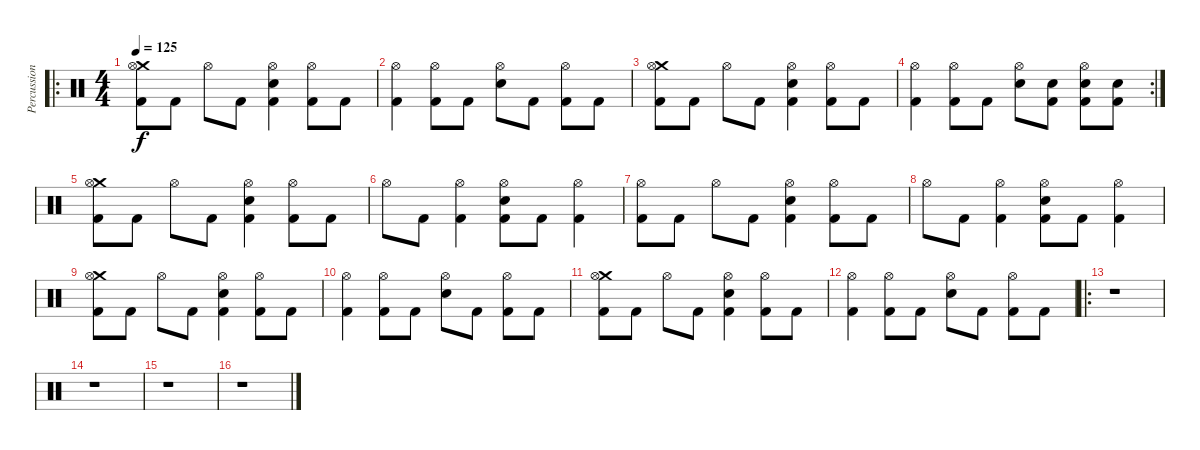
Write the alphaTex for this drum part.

\track ("Percussion" "Percussion") {instrument percussion}
\staff {score}
\articulation defaults
\ro
\ts (4 4)
\tempo 125
\clef neutral
\ks c
("Crash medium (hit)" "Hi-Hat (open)" "Kick (hit) 2").8{dy f} "Kick (hit) 2".8 "Hi-Hat (open)".8 "Kick (hit) 2".8 ("Hi-Hat (open)" "Electric Snare (hit)" "Kick (hit) 2").4 ("Hi-Hat (open)" "Kick (hit) 2").8 "Kick (hit) 2".8 |
("Hi-Hat (open)" "Kick (hit) 2").4 ("Hi-Hat (open)" "Kick (hit) 2").8 "Kick (hit) 2".8 ("Hi-Hat (open)" "Electric Snare (hit)").8 "Kick (hit) 2".8 ("Hi-Hat (open)" "Kick (hit) 2").8 "Kick (hit) 2".8 |
("Crash medium (hit)" "Hi-Hat (open)" "Kick (hit) 2").8 "Kick (hit) 2".8 "Hi-Hat (open)".8 "Kick (hit) 2".8 ("Hi-Hat (open)" "Electric Snare (hit)" "Kick (hit) 2").4 ("Hi-Hat (open)" "Kick (hit) 2").8 "Kick (hit) 2".8 |
\rc 2
("Hi-Hat (open)" "Kick (hit) 2").4 ("Hi-Hat (open)" "Kick (hit) 2").8 "Kick (hit) 2".8 ("Hi-Hat (open)" "Electric Snare (hit)").8 ("Electric Snare (hit)" "Kick (hit) 2").8 ("Hi-Hat (open)" "Electric Snare (hit)" "Kick (hit) 2").8 ("Electric Snare (hit)" "Kick (hit) 2").8 |
("Crash medium (hit)" "Hi-Hat (open)" "Kick (hit) 2").8 "Kick (hit) 2".8 "Hi-Hat (open)".8 "Kick (hit) 2".8 ("Hi-Hat (open)" "Electric Snare (hit)" "Kick (hit) 2").4 ("Hi-Hat (open)" "Kick (hit) 2").8 "Kick (hit) 2".8 |
"Hi-Hat (open)".8 "Kick (hit) 2".8 ("Hi-Hat (open)" "Kick (hit) 2").4 ("Hi-Hat (open)" "Electric Snare (hit)" "Kick (hit) 2").8 "Kick (hit) 2".8 ("Hi-Hat (open)" "Kick (hit) 2").4 |
("Hi-Hat (open)" "Kick (hit) 2").8 "Kick (hit) 2".8 "Hi-Hat (open)".8 "Kick (hit) 2".8 ("Hi-Hat (open)" "Electric Snare (hit)" "Kick (hit) 2").4 ("Hi-Hat (open)" "Kick (hit) 2").8 "Kick (hit) 2".8 |
"Hi-Hat (open)".8 "Kick (hit) 2".8 ("Hi-Hat (open)" "Kick (hit) 2").4 ("Hi-Hat (open)" "Electric Snare (hit)" "Kick (hit) 2").8 "Kick (hit) 2".8 ("Hi-Hat (open)" "Kick (hit) 2").4 |
("Crash medium (hit)" "Hi-Hat (open)" "Kick (hit) 2").8 "Kick (hit) 2".8 "Hi-Hat (open)".8 "Kick (hit) 2".8 ("Hi-Hat (open)" "Electric Snare (hit)" "Kick (hit) 2").4 ("Hi-Hat (open)" "Kick (hit) 2").8 "Kick (hit) 2".8 |
("Hi-Hat (open)" "Kick (hit) 2").4 ("Hi-Hat (open)" "Kick (hit) 2").8 "Kick (hit) 2".8 ("Hi-Hat (open)" "Electric Snare (hit)").8 "Kick (hit) 2".8 ("Hi-Hat (open)" "Kick (hit) 2").8 "Kick (hit) 2".8 |
("Crash medium (hit)" "Hi-Hat (open)" "Kick (hit) 2").8 "Kick (hit) 2".8 "Hi-Hat (open)".8 "Kick (hit) 2".8 ("Hi-Hat (open)" "Electric Snare (hit)" "Kick (hit) 2").4 ("Hi-Hat (open)" "Kick (hit) 2").8 "Kick (hit) 2".8 |
("Hi-Hat (open)" "Kick (hit) 2").4 ("Hi-Hat (open)" "Kick (hit) 2").8 "Kick (hit) 2".8 ("Hi-Hat (open)" "Electric Snare (hit)").8 "Kick (hit) 2".8 ("Hi-Hat (open)" "Kick (hit) 2").8 "Kick (hit) 2".8 |
\ro
r.1 |
r.1 |
r.1 |
r.1
